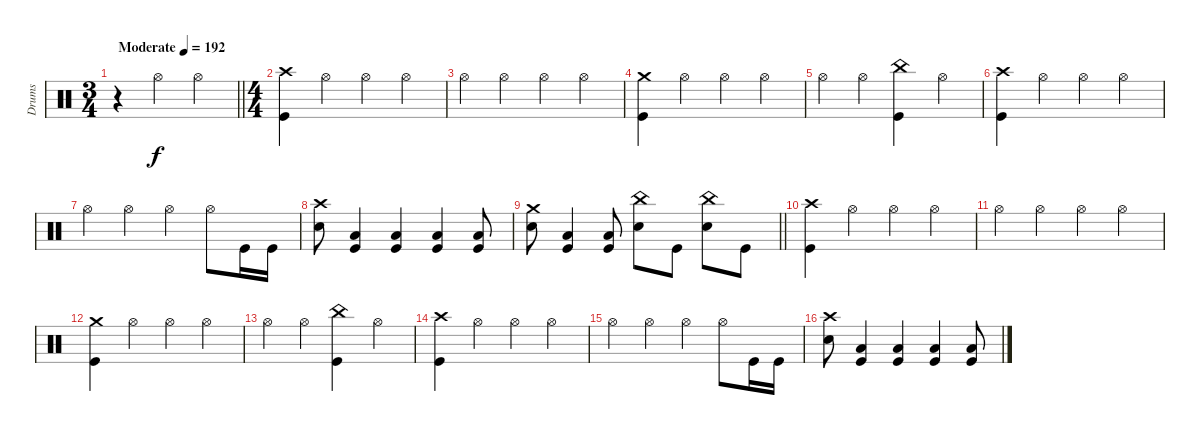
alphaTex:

\track ("Drums" "Drums") {instrument percussion}
\staff
\articulation defaults
\ts (3 4)
\tempo (192 "Moderate")
\clef neutral
\barLineRight lightlight
\ks c
r.4{dy f} "Hi-Hat (open)".4 "Hi-Hat (open)".4 |
\ts (4 4)
("Crash high (hit)" "Kick (hit)").4 "Hi-Hat (open)".4 "Hi-Hat (open)".4 "Hi-Hat (open)".4 |
"Hi-Hat (open)".4 "Hi-Hat (open)".4 "Hi-Hat (open)".4 "Hi-Hat (open)".4 |
("Crash medium (hit)" "Kick (hit)").4 "Hi-Hat (open)".4 "Hi-Hat (open)".4 "Hi-Hat (open)".4 |
"Hi-Hat (open)".4 "Hi-Hat (open)".4 ("China (hit)" "Kick (hit)").4 "Hi-Hat (open)".4 |
("Crash high (hit)" "Kick (hit)").4 "Hi-Hat (open)".4 "Hi-Hat (open)".4 "Hi-Hat (open)".4 |
"Hi-Hat (open)".4 "Hi-Hat (open)".4 "Hi-Hat (open)".4 "Hi-Hat (open)".8 "Kick (hit)".16 "Kick (hit)".16 |
("Crash high (hit)" "Electric Snare (hit)").8 ("Low Floor Tom (hit)" "Kick (hit)").4 ("Low Floor Tom (hit)" "Kick (hit)").4 ("Low Floor Tom (hit)" "Kick (hit)").4 ("Low Floor Tom (hit)" "Kick (hit)").8 |
\barLineRight lightlight
("Crash medium (hit)" "Electric Snare (hit)").8 ("Low Floor Tom (hit)" "Kick (hit)").4 ("Low Floor Tom (hit)" "Kick (hit)").8 ("China (hit)" "Electric Snare (hit)").8 "Kick (hit)".8 ("China (hit)" "Electric Snare (hit)").8 "Kick (hit)".8 |
("Crash high (hit)" "Kick (hit)").4 "Hi-Hat (open)".4 "Hi-Hat (open)".4 "Hi-Hat (open)".4 |
"Hi-Hat (open)".4 "Hi-Hat (open)".4 "Hi-Hat (open)".4 "Hi-Hat (open)".4 |
("Crash medium (hit)" "Kick (hit)").4 "Hi-Hat (open)".4 "Hi-Hat (open)".4 "Hi-Hat (open)".4 |
"Hi-Hat (open)".4 "Hi-Hat (open)".4 ("China (hit)" "Kick (hit)").4 "Hi-Hat (open)".4 |
("Crash high (hit)" "Kick (hit)").4 "Hi-Hat (open)".4 "Hi-Hat (open)".4 "Hi-Hat (open)".4 |
"Hi-Hat (open)".4 "Hi-Hat (open)".4 "Hi-Hat (open)".4 "Hi-Hat (open)".8 "Kick (hit)".16 "Kick (hit)".16 |
("Crash high (hit)" "Electric Snare (hit)").8 ("Low Floor Tom (hit)" "Kick (hit)").4 ("Low Floor Tom (hit)" "Kick (hit)").4 ("Low Floor Tom (hit)" "Kick (hit)").4 ("Low Floor Tom (hit)" "Kick (hit)").8
